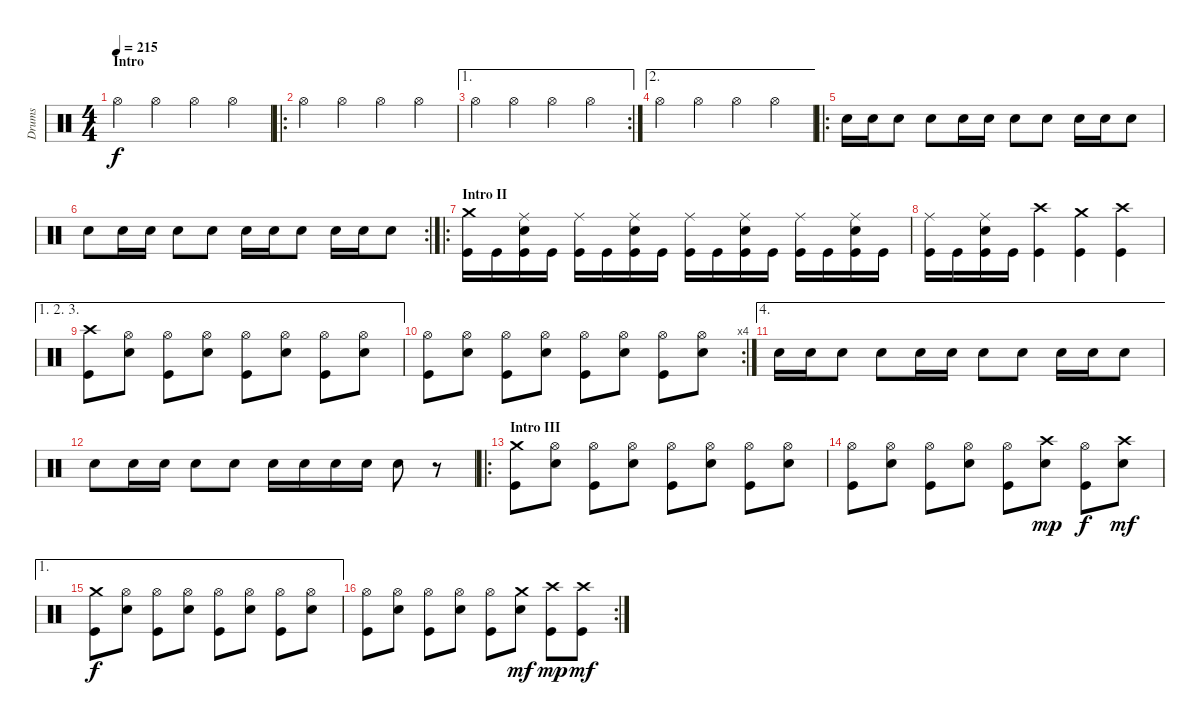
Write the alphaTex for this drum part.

\track ("Drums" "Drums") {instrument percussion}
\staff {score}
\articulation defaults
\ts (4 4)
\section ("" "Intro")
\tempo 215
\clef neutral
\ks c "Hi-Hat (open)".4{dy f} "Hi-Hat (open)".4 "Hi-Hat (open)".4 "Hi-Hat (open)".4
|
\ro "Hi-Hat (open)".4 "Hi-Hat (open)".4 "Hi-Hat (open)".4 "Hi-Hat (open)".4
|
\ae 1
\rc 2 "Hi-Hat (open)".4 "Hi-Hat (open)".4 "Hi-Hat (open)".4 "Hi-Hat (open)".4
|
\ae 2 "Hi-Hat (open)".4 "Hi-Hat (open)".4 "Hi-Hat (open)".4 "Hi-Hat (open)".4
|
\ro "Electric Snare (hit)".16 "Electric Snare (hit)".16 "Electric Snare (hit)".8 "Electric Snare (hit)".8 "Electric Snare (hit)".16 "Electric Snare (hit)".16 "Electric Snare (hit)".8 "Electric Snare (hit)".8 "Electric Snare (hit)".16 "Electric Snare (hit)".16 "Electric Snare (hit)".8
|
\rc 2 "Electric Snare (hit)".8 "Electric Snare (hit)".16 "Electric Snare (hit)".16 "Electric Snare (hit)".8 "Electric Snare (hit)".8 "Electric Snare (hit)".16 "Electric Snare (hit)".16 "Electric Snare (hit)".8 "Electric Snare (hit)".16 "Electric Snare (hit)".16 "Electric Snare (hit)".8
|
\ro
\section ("" "Intro II")
("Crash medium (hit)" "Kick (hit)").16 "Kick (hit)".16 ("Ride (middle)" "Electric Snare (hit)" "Kick (hit)").16 "Kick (hit)".16 ("Ride (middle)" "Kick (hit)").16 "Kick (hit)".16 ("Ride (middle)" "Electric Snare (hit)" "Kick (hit)").16 "Kick (hit)".16 ("Ride (middle)" "Kick (hit)").16 "Kick (hit)".16 ("Ride (middle)" "Electric Snare (hit)" "Kick (hit)").16 "Kick (hit)".16 ("Ride (middle)" "Kick (hit)").16 "Kick (hit)".16 ("Ride (middle)" "Electric Snare (hit)" "Kick (hit)").16 "Kick (hit)".16 |
("Ride (middle)" "Kick (hit)").16 "Kick (hit)".16 ("Ride (middle)" "Electric Snare (hit)" "Kick (hit)").16 "Kick (hit)".16 ("Crash high (hit)" "Kick (hit)").4 ("Crash medium (hit)" "Kick (hit)").4 ("Crash high (hit)" "Kick (hit)").4 |
\ae (1 2 3)
("Crash high (hit)" "Kick (hit)").8 ("Hi-Hat (open)" "Electric Snare (hit)").8 ("Hi-Hat (open)" "Kick (hit)").8 ("Hi-Hat (open)" "Electric Snare (hit)").8 ("Hi-Hat (open)" "Kick (hit)").8 ("Hi-Hat (open)" "Electric Snare (hit)").8 ("Hi-Hat (open)" "Kick (hit)").8 ("Hi-Hat (open)" "Electric Snare (hit)").8 |
\rc 4
("Hi-Hat (open)" "Kick (hit)").8 ("Hi-Hat (open)" "Electric Snare (hit)").8 ("Hi-Hat (open)" "Kick (hit)").8 ("Hi-Hat (open)" "Electric Snare (hit)").8 ("Hi-Hat (open)" "Kick (hit)").8 ("Hi-Hat (open)" "Electric Snare (hit)").8 ("Hi-Hat (open)" "Kick (hit)").8 ("Hi-Hat (open)" "Electric Snare (hit)").8 |
\ae 4 "Electric Snare (hit)".16 "Electric Snare (hit)".16 "Electric Snare (hit)".8 "Electric Snare (hit)".8 "Electric Snare (hit)".16 "Electric Snare (hit)".16 "Electric Snare (hit)".8 "Electric Snare (hit)".8 "Electric Snare (hit)".16 "Electric Snare (hit)".16 "Electric Snare (hit)".8
|
"Electric Snare (hit)".8 "Electric Snare (hit)".16 "Electric Snare (hit)".16 "Electric Snare (hit)".8 "Electric Snare (hit)".8 "Electric Snare (hit)".16 "Electric Snare (hit)".16 "Electric Snare (hit)".16 "Electric Snare (hit)".16 "Electric Snare (hit)".8 r.8 |
\ro
\section ("" "Intro III")
("Crash medium (hit)" "Kick (hit)").8 ("Hi-Hat (open)" "Electric Snare (hit)").8 ("Hi-Hat (open)" "Kick (hit)").8 ("Hi-Hat (open)" "Electric Snare (hit)").8 ("Hi-Hat (open)" "Kick (hit)").8 ("Hi-Hat (open)" "Electric Snare (hit)").8 ("Hi-Hat (open)" "Kick (hit)").8 ("Hi-Hat (open)" "Electric Snare (hit)").8 |
("Hi-Hat (open)" "Kick (hit)").8 ("Hi-Hat (open)" "Electric Snare (hit)").8 ("Hi-Hat (open)" "Kick (hit)").8 ("Hi-Hat (open)" "Electric Snare (hit)").8 ("Hi-Hat (open)" "Kick (hit)").8 ("Crash high (hit)" "Electric Snare (hit)").8{dy mp} ("Hi-Hat (open)" "Kick (hit)").8{dy f} ("Crash high (hit)" "Electric Snare (hit)").8{dy mf} |
\ae 1
("Crash medium (hit)" "Kick (hit)").8{dy f} ("Hi-Hat (open)" "Electric Snare (hit)").8 ("Hi-Hat (open)" "Kick (hit)").8 ("Hi-Hat (open)" "Electric Snare (hit)").8 ("Hi-Hat (open)" "Kick (hit)").8 ("Hi-Hat (open)" "Electric Snare (hit)").8 ("Hi-Hat (open)" "Kick (hit)").8 ("Hi-Hat (open)" "Electric Snare (hit)").8 |
\rc 2
("Hi-Hat (open)" "Kick (hit)").8 ("Hi-Hat (open)" "Electric Snare (hit)").8 ("Hi-Hat (open)" "Kick (hit)").8 ("Hi-Hat (open)" "Electric Snare (hit)").8 ("Hi-Hat (open)" "Kick (hit)").8 ("Crash medium (hit)" "Electric Snare (hit)").8{dy mf} ("Crash high (hit)" "Kick (hit)").8{dy mp} ("Crash high (hit)" "Kick (hit)").8{dy mf}
